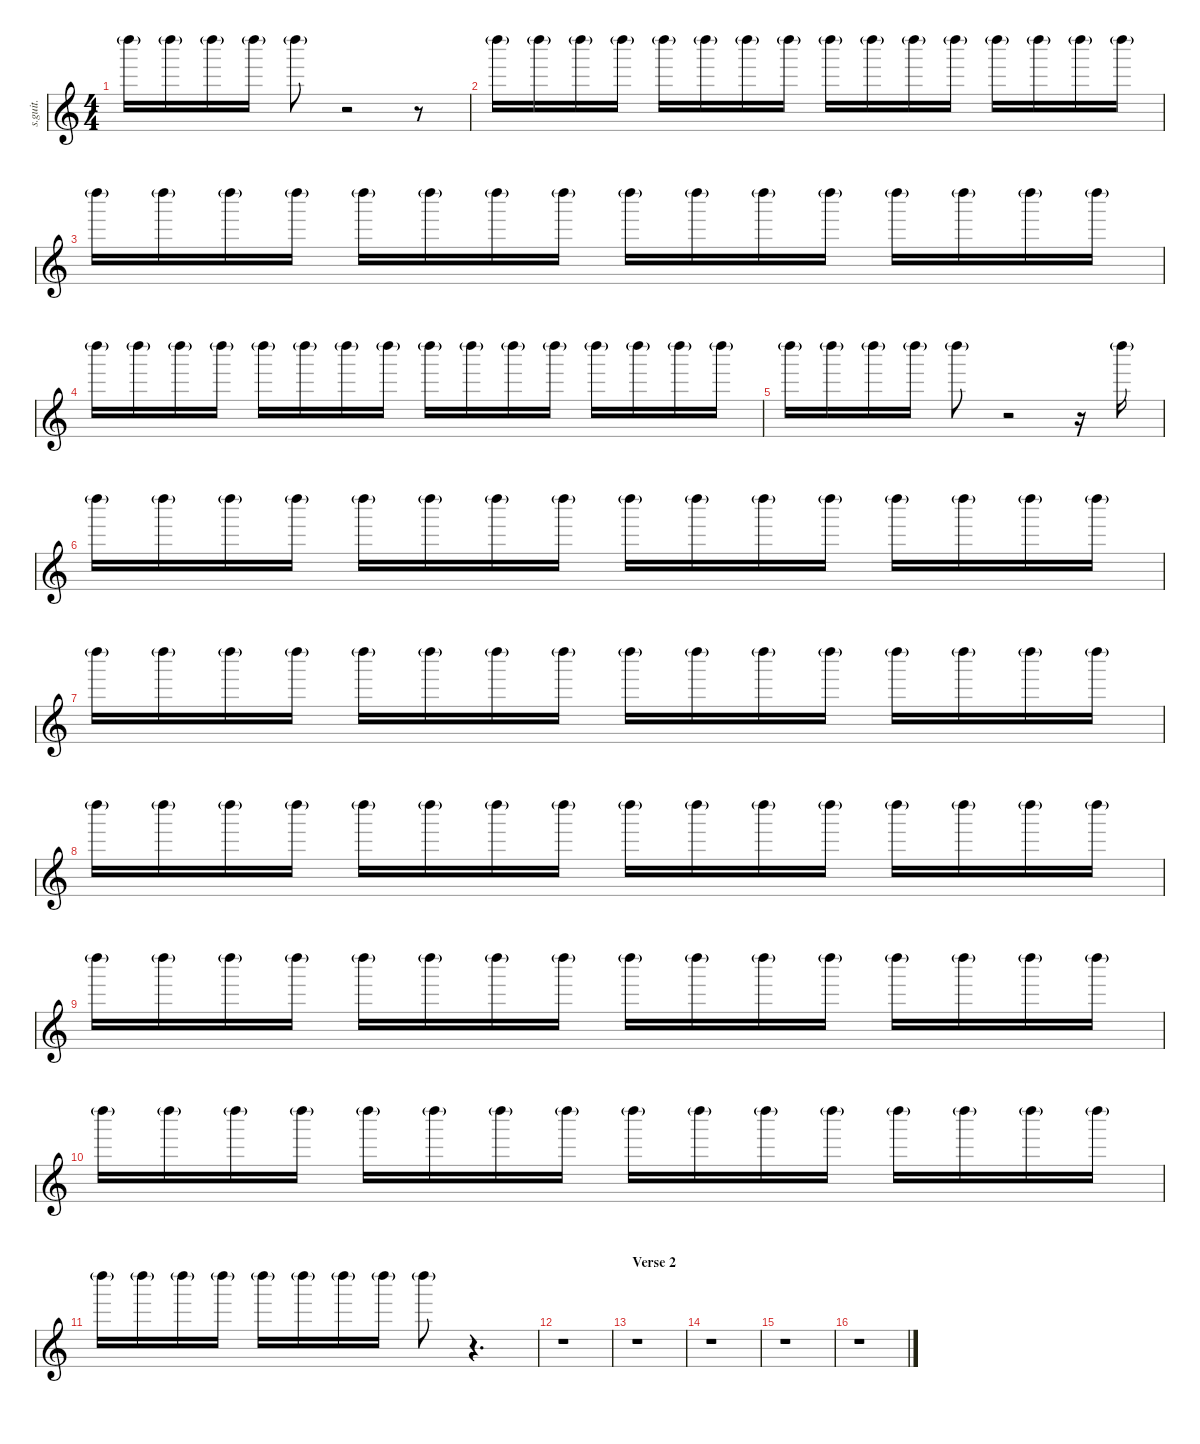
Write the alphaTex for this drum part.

\defaultSystemsLayout 4
\hideDynamics
\bracketExtendMode nobrackets
\track ("Shaker" "s.guit.") {instrument percussion}
\staff {score}
\articulation defaults
\ts (4 4)
\tempo (87 hide)
\clef g2
\ks c "Left Maraca (hit)"{g}.16{lyrics (0 "") lyrics (1 "") lyrics (2 "") lyrics (3 "") lyrics (4 "") dy mp} "Left Maraca (hit)"{g}.16{lyrics (0 "") lyrics (1 "") lyrics (2 "") lyrics (3 "") lyrics (4 "") dy p} "Left Maraca (hit)"{g}.16{lyrics (0 "") lyrics (1 "") lyrics (2 "") lyrics (3 "") lyrics (4 "")} "Left Maraca (hit)"{g}.16{lyrics (0 "") lyrics (1 "") lyrics (2 "") lyrics (3 "") lyrics (4 "")} "Left Maraca (hit)"{g}.8{lyrics (0 "") lyrics (1 "") lyrics (2 "") lyrics (3 "") lyrics (4 "") dy mp}
r.2 r.8 |
\tempo (89 hide)
"Left Maraca (hit)"{g}.16{lyrics (0 "") lyrics (1 "") lyrics (2 "") lyrics (3 "") lyrics (4 "")} "Left Maraca (hit)"{g}.16{lyrics (0 "") lyrics (1 "") lyrics (2 "") lyrics (3 "") lyrics (4 "") dy p} "Left Maraca (hit)"{g}.16{lyrics (0 "") lyrics (1 "") lyrics (2 "") lyrics (3 "") lyrics (4 "")} "Left Maraca (hit)"{g}.16{lyrics (0 "") lyrics (1 "") lyrics (2 "") lyrics (3 "") lyrics (4 "")} "Left Maraca (hit)"{g}.16{lyrics (0 "") lyrics (1 "") lyrics (2 "") lyrics (3 "") lyrics (4 "") dy mp} "Left Maraca (hit)"{g}.16{lyrics (0 "") lyrics (1 "") lyrics (2 "") lyrics (3 "") lyrics (4 "") dy p} "Left Maraca (hit)"{g}.16{lyrics (0 "") lyrics (1 "") lyrics (2 "") lyrics (3 "") lyrics (4 "")} "Left Maraca (hit)"{g}.16{lyrics (0 "") lyrics (1 "") lyrics (2 "") lyrics (3 "") lyrics (4 "")} "Left Maraca (hit)"{g}.16{lyrics (0 "") lyrics (1 "") lyrics (2 "") lyrics (3 "") lyrics (4 "") dy mp} "Left Maraca (hit)"{g}.16{lyrics (0 "") lyrics (1 "") lyrics (2 "") lyrics (3 "") lyrics (4 "") dy p} "Left Maraca (hit)"{g}.16{lyrics (0 "") lyrics (1 "") lyrics (2 "") lyrics (3 "") lyrics (4 "")} "Left Maraca (hit)"{g}.16{lyrics (0 "") lyrics (1 "") lyrics (2 "") lyrics (3 "") lyrics (4 "")} "Left Maraca (hit)"{g}.16{lyrics (0 "") lyrics (1 "") lyrics (2 "") lyrics (3 "") lyrics (4 "") dy mp} "Left Maraca (hit)"{g}.16{lyrics (0 "") lyrics (1 "") lyrics (2 "") lyrics (3 "") lyrics (4 "") dy p} "Left Maraca (hit)"{g}.16{lyrics (0 "") lyrics (1 "") lyrics (2 "") lyrics (3 "") lyrics (4 "")} "Left Maraca (hit)"{g}.16{lyrics (0 "") lyrics (1 "") lyrics (2 "") lyrics (3 "") lyrics (4 "")} |
"Left Maraca (hit)"{g}.16{lyrics (0 "") lyrics (1 "") lyrics (2 "") lyrics (3 "") lyrics (4 "") dy mp} "Left Maraca (hit)"{g}.16{lyrics (0 "") lyrics (1 "") lyrics (2 "") lyrics (3 "") lyrics (4 "") dy p} "Left Maraca (hit)"{g}.16{lyrics (0 "") lyrics (1 "") lyrics (2 "") lyrics (3 "") lyrics (4 "")} "Left Maraca (hit)"{g}.16{lyrics (0 "") lyrics (1 "") lyrics (2 "") lyrics (3 "") lyrics (4 "")} "Left Maraca (hit)"{g}.16{lyrics (0 "") lyrics (1 "") lyrics (2 "") lyrics (3 "") lyrics (4 "") dy mp} "Left Maraca (hit)"{g}.16{lyrics (0 "") lyrics (1 "") lyrics (2 "") lyrics (3 "") lyrics (4 "") dy p} "Left Maraca (hit)"{g}.16{lyrics (0 "") lyrics (1 "") lyrics (2 "") lyrics (3 "") lyrics (4 "")} "Left Maraca (hit)"{g}.16{lyrics (0 "") lyrics (1 "") lyrics (2 "") lyrics (3 "") lyrics (4 "")} "Left Maraca (hit)"{g}.16{lyrics (0 "") lyrics (1 "") lyrics (2 "") lyrics (3 "") lyrics (4 "") dy mp} "Left Maraca (hit)"{g}.16{lyrics (0 "") lyrics (1 "") lyrics (2 "") lyrics (3 "") lyrics (4 "") dy p} "Left Maraca (hit)"{g}.16{lyrics (0 "") lyrics (1 "") lyrics (2 "") lyrics (3 "") lyrics (4 "")} "Left Maraca (hit)"{g}.16{lyrics (0 "") lyrics (1 "") lyrics (2 "") lyrics (3 "") lyrics (4 "")} "Left Maraca (hit)"{g}.16{lyrics (0 "") lyrics (1 "") lyrics (2 "") lyrics (3 "") lyrics (4 "") dy mp} "Left Maraca (hit)"{g}.16{lyrics (0 "") lyrics (1 "") lyrics (2 "") lyrics (3 "") lyrics (4 "") dy p} "Left Maraca (hit)"{g}.16{lyrics (0 "") lyrics (1 "") lyrics (2 "") lyrics (3 "") lyrics (4 "")} "Left Maraca (hit)"{g}.16{lyrics (0 "") lyrics (1 "") lyrics (2 "") lyrics (3 "") lyrics (4 "")} |
\tempo (90 hide)
"Left Maraca (hit)"{g}.16{lyrics (0 "") lyrics (1 "") lyrics (2 "") lyrics (3 "") lyrics (4 "") dy mp} "Left Maraca (hit)"{g}.16{lyrics (0 "") lyrics (1 "") lyrics (2 "") lyrics (3 "") lyrics (4 "") dy p} "Left Maraca (hit)"{g}.16{lyrics (0 "") lyrics (1 "") lyrics (2 "") lyrics (3 "") lyrics (4 "")} "Left Maraca (hit)"{g}.16{lyrics (0 "") lyrics (1 "") lyrics (2 "") lyrics (3 "") lyrics (4 "")} "Left Maraca (hit)"{g}.16{lyrics (0 "") lyrics (1 "") lyrics (2 "") lyrics (3 "") lyrics (4 "") dy mp} "Left Maraca (hit)"{g}.16{lyrics (0 "") lyrics (1 "") lyrics (2 "") lyrics (3 "") lyrics (4 "") dy p} "Left Maraca (hit)"{g}.16{lyrics (0 "") lyrics (1 "") lyrics (2 "") lyrics (3 "") lyrics (4 "")} "Left Maraca (hit)"{g}.16{lyrics (0 "") lyrics (1 "") lyrics (2 "") lyrics (3 "") lyrics (4 "")} "Left Maraca (hit)"{g}.16{lyrics (0 "") lyrics (1 "") lyrics (2 "") lyrics (3 "") lyrics (4 "") dy mp} "Left Maraca (hit)"{g}.16{lyrics (0 "") lyrics (1 "") lyrics (2 "") lyrics (3 "") lyrics (4 "") dy p} "Left Maraca (hit)"{g}.16{lyrics (0 "") lyrics (1 "") lyrics (2 "") lyrics (3 "") lyrics (4 "")} "Left Maraca (hit)"{g}.16{lyrics (0 "") lyrics (1 "") lyrics (2 "") lyrics (3 "") lyrics (4 "")} "Left Maraca (hit)"{g}.16{lyrics (0 "") lyrics (1 "") lyrics (2 "") lyrics (3 "") lyrics (4 "") dy mp} "Left Maraca (hit)"{g}.16{lyrics (0 "") lyrics (1 "") lyrics (2 "") lyrics (3 "") lyrics (4 "") dy p} "Left Maraca (hit)"{g}.16{lyrics (0 "") lyrics (1 "") lyrics (2 "") lyrics (3 "") lyrics (4 "")} "Left Maraca (hit)"{g}.16{lyrics (0 "") lyrics (1 "") lyrics (2 "") lyrics (3 "") lyrics (4 "")} |
\tempo (86 hide)
"Left Maraca (hit)"{g}.16{lyrics (0 "") lyrics (1 "") lyrics (2 "") lyrics (3 "") lyrics (4 "") dy mp} "Left Maraca (hit)"{g}.16{lyrics (0 "") lyrics (1 "") lyrics (2 "") lyrics (3 "") lyrics (4 "") dy p} "Left Maraca (hit)"{g}.16{lyrics (0 "") lyrics (1 "") lyrics (2 "") lyrics (3 "") lyrics (4 "")} "Left Maraca (hit)"{g}.16{lyrics (0 "") lyrics (1 "") lyrics (2 "") lyrics (3 "") lyrics (4 "")} "Left Maraca (hit)"{g}.8{lyrics (0 "") lyrics (1 "") lyrics (2 "") lyrics (3 "") lyrics (4 "") dy mp} r.2 r.16 "Left Maraca (hit)"{g}.16{lyrics (0 "") lyrics (1 "") lyrics (2 "") lyrics (3 "") lyrics (4 "") dy p} |
\tempo (87 hide)
"Left Maraca (hit)"{g}.16{lyrics (0 "") lyrics (1 "") lyrics (2 "") lyrics (3 "") lyrics (4 "") dy mp} "Left Maraca (hit)"{g}.16{lyrics (0 "") lyrics (1 "") lyrics (2 "") lyrics (3 "") lyrics (4 "") dy p} "Left Maraca (hit)"{g}.16{lyrics (0 "") lyrics (1 "") lyrics (2 "") lyrics (3 "") lyrics (4 "")} "Left Maraca (hit)"{g}.16{lyrics (0 "") lyrics (1 "") lyrics (2 "") lyrics (3 "") lyrics (4 "")} "Left Maraca (hit)"{g}.16{lyrics (0 "") lyrics (1 "") lyrics (2 "") lyrics (3 "") lyrics (4 "") dy mp} "Left Maraca (hit)"{g}.16{lyrics (0 "") lyrics (1 "") lyrics (2 "") lyrics (3 "") lyrics (4 "") dy p} "Left Maraca (hit)"{g}.16{lyrics (0 "") lyrics (1 "") lyrics (2 "") lyrics (3 "") lyrics (4 "")} "Left Maraca (hit)"{g}.16{lyrics (0 "") lyrics (1 "") lyrics (2 "") lyrics (3 "") lyrics (4 "")} "Left Maraca (hit)"{g}.16{lyrics (0 "") lyrics (1 "") lyrics (2 "") lyrics (3 "") lyrics (4 "") dy mp} "Left Maraca (hit)"{g}.16{lyrics (0 "") lyrics (1 "") lyrics (2 "") lyrics (3 "") lyrics (4 "") dy p} "Left Maraca (hit)"{g}.16{lyrics (0 "") lyrics (1 "") lyrics (2 "") lyrics (3 "") lyrics (4 "")} "Left Maraca (hit)"{g}.16{lyrics (0 "") lyrics (1 "") lyrics (2 "") lyrics (3 "") lyrics (4 "")} "Left Maraca (hit)"{g}.16{lyrics (0 "") lyrics (1 "") lyrics (2 "") lyrics (3 "") lyrics (4 "") dy mp} "Left Maraca (hit)"{g}.16{lyrics (0 "") lyrics (1 "") lyrics (2 "") lyrics (3 "") lyrics (4 "") dy p} "Left Maraca (hit)"{g}.16{lyrics (0 "") lyrics (1 "") lyrics (2 "") lyrics (3 "") lyrics (4 "")} "Left Maraca (hit)"{g}.16{lyrics (0 "") lyrics (1 "") lyrics (2 "") lyrics (3 "") lyrics (4 "")} |
\tempo (89 hide)
"Left Maraca (hit)"{g}.16{lyrics (0 "") lyrics (1 "") lyrics (2 "") lyrics (3 "") lyrics (4 "") dy mp} "Left Maraca (hit)"{g}.16{lyrics (0 "") lyrics (1 "") lyrics (2 "") lyrics (3 "") lyrics (4 "") dy p} "Left Maraca (hit)"{g}.16{lyrics (0 "") lyrics (1 "") lyrics (2 "") lyrics (3 "") lyrics (4 "")} "Left Maraca (hit)"{g}.16{lyrics (0 "") lyrics (1 "") lyrics (2 "") lyrics (3 "") lyrics (4 "")} "Left Maraca (hit)"{g}.16{lyrics (0 "") lyrics (1 "") lyrics (2 "") lyrics (3 "") lyrics (4 "") dy mp} "Left Maraca (hit)"{g}.16{lyrics (0 "") lyrics (1 "") lyrics (2 "") lyrics (3 "") lyrics (4 "") dy p} "Left Maraca (hit)"{g}.16{lyrics (0 "") lyrics (1 "") lyrics (2 "") lyrics (3 "") lyrics (4 "")} "Left Maraca (hit)"{g}.16{lyrics (0 "") lyrics (1 "") lyrics (2 "") lyrics (3 "") lyrics (4 "")} "Left Maraca (hit)"{g}.16{lyrics (0 "") lyrics (1 "") lyrics (2 "") lyrics (3 "") lyrics (4 "") dy mp} "Left Maraca (hit)"{g}.16{lyrics (0 "") lyrics (1 "") lyrics (2 "") lyrics (3 "") lyrics (4 "") dy p} "Left Maraca (hit)"{g}.16{lyrics (0 "") lyrics (1 "") lyrics (2 "") lyrics (3 "") lyrics (4 "")} "Left Maraca (hit)"{g}.16{lyrics (0 "") lyrics (1 "") lyrics (2 "") lyrics (3 "") lyrics (4 "")} "Left Maraca (hit)"{g}.16{lyrics (0 "") lyrics (1 "") lyrics (2 "") lyrics (3 "") lyrics (4 "") dy mp} "Left Maraca (hit)"{g}.16{lyrics (0 "") lyrics (1 "") lyrics (2 "") lyrics (3 "") lyrics (4 "") dy p} "Left Maraca (hit)"{g}.16{lyrics (0 "") lyrics (1 "") lyrics (2 "") lyrics (3 "") lyrics (4 "")} "Left Maraca (hit)"{g}.16{lyrics (0 "") lyrics (1 "") lyrics (2 "") lyrics (3 "") lyrics (4 "")} |
\tempo (91 hide)
"Left Maraca (hit)"{g}.16{lyrics (0 "") lyrics (1 "") lyrics (2 "") lyrics (3 "") lyrics (4 "") dy mp} "Left Maraca (hit)"{g}.16{lyrics (0 "") lyrics (1 "") lyrics (2 "") lyrics (3 "") lyrics (4 "") dy p} "Left Maraca (hit)"{g}.16{lyrics (0 "") lyrics (1 "") lyrics (2 "") lyrics (3 "") lyrics (4 "")} "Left Maraca (hit)"{g}.16{lyrics (0 "") lyrics (1 "") lyrics (2 "") lyrics (3 "") lyrics (4 "")} "Left Maraca (hit)"{g}.16{lyrics (0 "") lyrics (1 "") lyrics (2 "") lyrics (3 "") lyrics (4 "") dy mp} "Left Maraca (hit)"{g}.16{lyrics (0 "") lyrics (1 "") lyrics (2 "") lyrics (3 "") lyrics (4 "") dy p} "Left Maraca (hit)"{g}.16{lyrics (0 "") lyrics (1 "") lyrics (2 "") lyrics (3 "") lyrics (4 "")} "Left Maraca (hit)"{g}.16{lyrics (0 "") lyrics (1 "") lyrics (2 "") lyrics (3 "") lyrics (4 "")} "Left Maraca (hit)"{g}.16{lyrics (0 "") lyrics (1 "") lyrics (2 "") lyrics (3 "") lyrics (4 "") dy mp} "Left Maraca (hit)"{g}.16{lyrics (0 "") lyrics (1 "") lyrics (2 "") lyrics (3 "") lyrics (4 "") dy p} "Left Maraca (hit)"{g}.16{lyrics (0 "") lyrics (1 "") lyrics (2 "") lyrics (3 "") lyrics (4 "")} "Left Maraca (hit)"{g}.16{lyrics (0 "") lyrics (1 "") lyrics (2 "") lyrics (3 "") lyrics (4 "")} "Left Maraca (hit)"{g}.16{lyrics (0 "") lyrics (1 "") lyrics (2 "") lyrics (3 "") lyrics (4 "") dy mp} "Left Maraca (hit)"{g}.16{lyrics (0 "") lyrics (1 "") lyrics (2 "") lyrics (3 "") lyrics (4 "") dy p} "Left Maraca (hit)"{g}.16{lyrics (0 "") lyrics (1 "") lyrics (2 "") lyrics (3 "") lyrics (4 "")} "Left Maraca (hit)"{g}.16{lyrics (0 "") lyrics (1 "") lyrics (2 "") lyrics (3 "") lyrics (4 "")} |
\tempo (90 hide)
"Left Maraca (hit)"{g}.16{lyrics (0 "") lyrics (1 "") lyrics (2 "") lyrics (3 "") lyrics (4 "") dy mp} "Left Maraca (hit)"{g}.16{lyrics (0 "") lyrics (1 "") lyrics (2 "") lyrics (3 "") lyrics (4 "") dy p} "Left Maraca (hit)"{g}.16{lyrics (0 "") lyrics (1 "") lyrics (2 "") lyrics (3 "") lyrics (4 "")} "Left Maraca (hit)"{g}.16{lyrics (0 "") lyrics (1 "") lyrics (2 "") lyrics (3 "") lyrics (4 "")} "Left Maraca (hit)"{g}.16{lyrics (0 "") lyrics (1 "") lyrics (2 "") lyrics (3 "") lyrics (4 "") dy mp} "Left Maraca (hit)"{g}.16{lyrics (0 "") lyrics (1 "") lyrics (2 "") lyrics (3 "") lyrics (4 "") dy p} "Left Maraca (hit)"{g}.16{lyrics (0 "") lyrics (1 "") lyrics (2 "") lyrics (3 "") lyrics (4 "")} "Left Maraca (hit)"{g}.16{lyrics (0 "") lyrics (1 "") lyrics (2 "") lyrics (3 "") lyrics (4 "")} "Left Maraca (hit)"{g}.16{lyrics (0 "") lyrics (1 "") lyrics (2 "") lyrics (3 "") lyrics (4 "") dy mp} "Left Maraca (hit)"{g}.16{lyrics (0 "") lyrics (1 "") lyrics (2 "") lyrics (3 "") lyrics (4 "") dy p} "Left Maraca (hit)"{g}.16{lyrics (0 "") lyrics (1 "") lyrics (2 "") lyrics (3 "") lyrics (4 "")} "Left Maraca (hit)"{g}.16{lyrics (0 "") lyrics (1 "") lyrics (2 "") lyrics (3 "") lyrics (4 "")} "Left Maraca (hit)"{g}.16{lyrics (0 "") lyrics (1 "") lyrics (2 "") lyrics (3 "") lyrics (4 "") dy mp} "Left Maraca (hit)"{g}.16{lyrics (0 "") lyrics (1 "") lyrics (2 "") lyrics (3 "") lyrics (4 "") dy p} "Left Maraca (hit)"{g}.16{lyrics (0 "") lyrics (1 "") lyrics (2 "") lyrics (3 "") lyrics (4 "")} "Left Maraca (hit)"{g}.16{lyrics (0 "") lyrics (1 "") lyrics (2 "") lyrics (3 "") lyrics (4 "")} |
"Left Maraca (hit)"{g}.16{lyrics (0 "") lyrics (1 "") lyrics (2 "") lyrics (3 "") lyrics (4 "") dy mp} "Left Maraca (hit)"{g}.16{lyrics (0 "") lyrics (1 "") lyrics (2 "") lyrics (3 "") lyrics (4 "") dy p} "Left Maraca (hit)"{g}.16{lyrics (0 "") lyrics (1 "") lyrics (2 "") lyrics (3 "") lyrics (4 "")} "Left Maraca (hit)"{g}.16{lyrics (0 "") lyrics (1 "") lyrics (2 "") lyrics (3 "") lyrics (4 "")} "Left Maraca (hit)"{g}.16{lyrics (0 "") lyrics (1 "") lyrics (2 "") lyrics (3 "") lyrics (4 "") dy mp} "Left Maraca (hit)"{g}.16{lyrics (0 "") lyrics (1 "") lyrics (2 "") lyrics (3 "") lyrics (4 "") dy p} "Left Maraca (hit)"{g}.16{lyrics (0 "") lyrics (1 "") lyrics (2 "") lyrics (3 "") lyrics (4 "")} "Left Maraca (hit)"{g}.16{lyrics (0 "") lyrics (1 "") lyrics (2 "") lyrics (3 "") lyrics (4 "")} "Left Maraca (hit)"{g}.16{lyrics (0 "") lyrics (1 "") lyrics (2 "") lyrics (3 "") lyrics (4 "") dy mp} "Left Maraca (hit)"{g}.16{lyrics (0 "") lyrics (1 "") lyrics (2 "") lyrics (3 "") lyrics (4 "") dy p} "Left Maraca (hit)"{g}.16{lyrics (0 "") lyrics (1 "") lyrics (2 "") lyrics (3 "") lyrics (4 "")} "Left Maraca (hit)"{g}.16{lyrics (0 "") lyrics (1 "") lyrics (2 "") lyrics (3 "") lyrics (4 "")} "Left Maraca (hit)"{g}.16{lyrics (0 "") lyrics (1 "") lyrics (2 "") lyrics (3 "") lyrics (4 "") dy mp} "Left Maraca (hit)"{g}.16{lyrics (0 "") lyrics (1 "") lyrics (2 "") lyrics (3 "") lyrics (4 "") dy p} "Left Maraca (hit)"{g}.16{lyrics (0 "") lyrics (1 "") lyrics (2 "") lyrics (3 "") lyrics (4 "")} "Left Maraca (hit)"{g}.16{lyrics (0 "") lyrics (1 "") lyrics (2 "") lyrics (3 "") lyrics (4 "")} |
\tempo (87 hide)
"Left Maraca (hit)"{g}.16{lyrics (0 "") lyrics (1 "") lyrics (2 "") lyrics (3 "") lyrics (4 "") dy mp} "Left Maraca (hit)"{g}.16{lyrics (0 "") lyrics (1 "") lyrics (2 "") lyrics (3 "") lyrics (4 "") dy p} "Left Maraca (hit)"{g}.16{lyrics (0 "") lyrics (1 "") lyrics (2 "") lyrics (3 "") lyrics (4 "")} "Left Maraca (hit)"{g}.16{lyrics (0 "") lyrics (1 "") lyrics (2 "") lyrics (3 "") lyrics (4 "")} "Left Maraca (hit)"{g}.16{lyrics (0 "") lyrics (1 "") lyrics (2 "") lyrics (3 "") lyrics (4 "") dy mp} "Left Maraca (hit)"{g}.16{lyrics (0 "") lyrics (1 "") lyrics (2 "") lyrics (3 "") lyrics (4 "") dy p} "Left Maraca (hit)"{g}.16{lyrics (0 "") lyrics (1 "") lyrics (2 "") lyrics (3 "") lyrics (4 "")} "Left Maraca (hit)"{g}.16{lyrics (0 "") lyrics (1 "") lyrics (2 "") lyrics (3 "") lyrics (4 "")} "Left Maraca (hit)"{g}.8{lyrics (0 "") lyrics (1 "") lyrics (2 "") lyrics (3 "") lyrics (4 "") dy mp} r.4{d} |
\tempo (90 hide)
r.1 |
\section ("" "Verse 2")
\tempo (88 hide)
r.1 |
\tempo (90 hide)
r.1 |
\tempo (89 hide)
r.1 |
r.1
